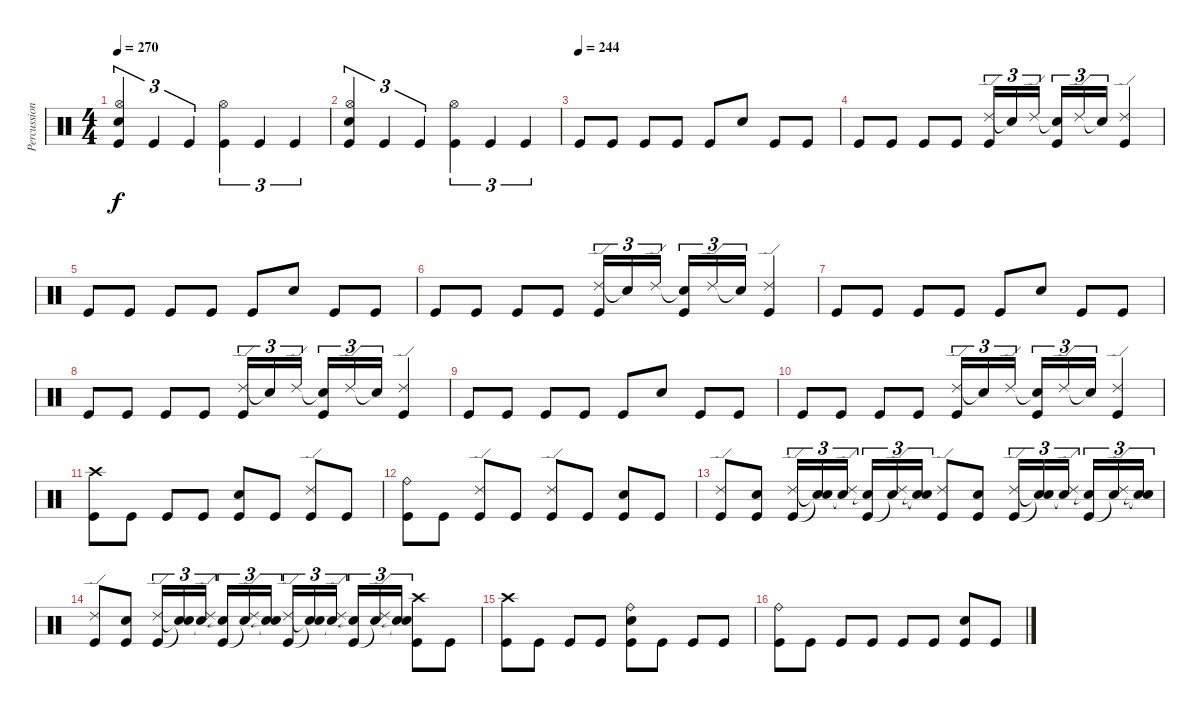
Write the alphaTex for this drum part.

\track ("Percussion" "Percussion") {instrument percussion}
\staff {score}
\articulation defaults
\ts (4 4)
\tempo 270
\clef neutral
\ks c
("Snare (hit) 2" "Hi-Hat (open)" "Kick (hit)").4{tu (3 2) dy f} "Kick (hit)".4{tu (3 2)} "Kick (hit)".4{tu (3 2)} ("Hi-Hat (open)" "Kick (hit)").4{tu (3 2)} "Kick (hit)".4{tu (3 2)} "Kick (hit)".4{tu (3 2)} |
("Snare (hit) 2" "Hi-Hat (open)" "Kick (hit)").4{tu (3 2)} "Kick (hit)".4{tu (3 2)} "Kick (hit)".4{tu (3 2)} ("Hi-Hat (open)" "Kick (hit)").4{tu (3 2)} "Kick (hit)".4{tu (3 2)} "Kick (hit)".4{tu (3 2)} |
\tempo (244)
"Kick (hit)".8 "Kick (hit)".8 "Kick (hit)".8 "Kick (hit)".8 "Kick (hit)".8 "Snare (hit) 2".8 "Kick (hit)".8 "Kick (hit)".8 |
"Kick (hit)".8 "Kick (hit)".8 "Kick (hit)".8 "Kick (hit)".8 ("Ride (edge) 2" "Kick (hit)").16{tu (3 2)} "Snare (hit)"{t}.16{tu (3 2)} "Ride (edge) 2".16{tu (3 2)} ("Snare (hit)"{t} "Kick (hit)").16{tu (3 2)} "Ride (edge) 2".16{tu (3 2)} "Snare (hit)"{t}.16{tu (3 2)} ("Ride (edge) 2" "Kick (hit)").4 |
"Kick (hit)".8 "Kick (hit)".8 "Kick (hit)".8 "Kick (hit)".8 "Kick (hit)".8 "Snare (hit) 2".8 "Kick (hit)".8 "Kick (hit)".8 |
"Kick (hit)".8 "Kick (hit)".8 "Kick (hit)".8 "Kick (hit)".8 ("Ride (edge) 2" "Kick (hit)").16{tu (3 2)} "Snare (hit)"{t}.16{tu (3 2)} "Ride (edge) 2".16{tu (3 2)} ("Snare (hit)"{t} "Kick (hit)").16{tu (3 2)} "Ride (edge) 2".16{tu (3 2)} "Snare (hit)"{t}.16{tu (3 2)} ("Ride (edge) 2" "Kick (hit)").4 |
"Kick (hit)".8 "Kick (hit)".8 "Kick (hit)".8 "Kick (hit)".8 "Kick (hit)".8 "Snare (hit) 2".8 "Kick (hit)".8 "Kick (hit)".8 |
"Kick (hit)".8 "Kick (hit)".8 "Kick (hit)".8 "Kick (hit)".8 ("Ride (edge) 2" "Kick (hit)").16{tu (3 2)} "Snare (hit)"{t}.16{tu (3 2)} "Ride (edge) 2".16{tu (3 2)} ("Snare (hit)"{t} "Kick (hit)").16{tu (3 2)} "Ride (edge) 2".16{tu (3 2)} "Snare (hit)"{t}.16{tu (3 2)} ("Ride (edge) 2" "Kick (hit)").4 |
"Kick (hit)".8 "Kick (hit)".8 "Kick (hit)".8 "Kick (hit)".8 "Kick (hit)".8 "Snare (hit) 2".8 "Kick (hit)".8 "Kick (hit)".8 |
"Kick (hit)".8 "Kick (hit)".8 "Kick (hit)".8 "Kick (hit)".8 ("Ride (edge) 2" "Kick (hit)").16{tu (3 2)} "Snare (hit)"{t}.16{tu (3 2)} "Ride (edge) 2".16{tu (3 2)} ("Snare (hit)"{t} "Kick (hit)").16{tu (3 2)} "Ride (edge) 2".16{tu (3 2)} "Snare (hit)"{t}.16{tu (3 2)} ("Ride (edge) 2" "Kick (hit)").4 |
("Crash high (hit)" "Kick (hit)").8 "Kick (hit)".8 "Kick (hit)".8 "Kick (hit)".8 ("Snare (hit) 2" "Kick (hit)").8 "Kick (hit)".8 ("Ride (edge) 2" "Kick (hit)").8 "Kick (hit)".8 |
("Ride (bell)" "Kick (hit)").8 "Kick (hit)".8 ("Ride (edge) 2" "Kick (hit)").8 "Kick (hit)".8 ("Ride (edge) 2" "Kick (hit)").8 "Kick (hit)".8 ("Snare (hit) 2" "Kick (hit)").8 "Kick (hit)".8 |
("Ride (edge) 2" "Kick (hit)").8 ("Snare (hit) 2" "Kick (hit)").8 ("Ride (edge) 2" "Kick (hit)").16{tu (3 2)} ("Snare (hit)"{t} "Snare (hit)"{t}).16{tu (3 2)} ("Ride (edge) 2" "Snare (hit)"{t}).16{tu (3 2)} ("Snare (hit)"{t} "Kick (hit)").16{tu (3 2)} ("Ride (edge) 2" "Snare (hit)"{t}).16{tu (3 2)} ("Snare (hit)"{t} "Snare (hit)"{t}).16{tu (3 2)} ("Ride (edge) 2" "Kick (hit)").8 ("Snare (hit) 2" "Kick (hit)").8 ("Ride (edge) 2" "Kick (hit)").16{tu (3 2)} ("Snare (hit)"{t} "Snare (hit)"{t}).16{tu (3 2)} ("Ride (edge) 2" "Snare (hit)"{t}).16{tu (3 2)} ("Snare (hit)"{t} "Kick (hit)").16{tu (3 2)} ("Ride (edge) 2" "Snare (hit)"{t}).16{tu (3 2)} ("Snare (hit)"{t} "Snare (hit)"{t}).16{tu (3 2)} |
("Ride (edge) 2" "Kick (hit)").8 ("Snare (hit) 2" "Kick (hit)").8 ("Ride (edge) 2" "Kick (hit)").16{tu (3 2)} ("Snare (hit)"{t} "Snare (hit)"{t}).16{tu (3 2)} ("Ride (edge) 2" "Snare (hit)"{t}).16{tu (3 2)} ("Snare (hit)"{t} "Kick (hit)").16{tu (3 2)} ("Ride (edge) 2" "Snare (hit)"{t}).16{tu (3 2)} ("Snare (hit)"{t} "Snare (hit)"{t}).16{tu (3 2)} ("Ride (edge) 2" "Kick (hit)").16{tu (3 2)} ("Snare (hit)"{t} "Snare (hit)"{t}).16{tu (3 2)} ("Ride (edge) 2" "Snare (hit)"{t}).16{tu (3 2)} ("Snare (hit)"{t} "Kick (hit)").16{tu (3 2)} ("Ride (edge) 2" "Snare (hit)"{t}).16{tu (3 2)} ("Snare (hit)"{t} "Snare (hit)"{t}).16{tu (3 2)} ("Crash high (hit)" "Kick (hit)").8 "Kick (hit)".8 |
("Crash high (hit)" "Kick (hit)").8 "Kick (hit)".8 "Kick (hit)".8 "Kick (hit)".8 ("Ride (bell)" "Snare (hit) 2" "Kick (hit)").8 "Kick (hit)".8 "Kick (hit)".8 "Kick (hit)".8 |
("Ride (bell)" "Kick (hit)").8 "Kick (hit)".8 "Kick (hit)".8 "Kick (hit)".8 "Kick (hit)".8 "Kick (hit)".8 ("Snare (hit) 2" "Kick (hit)").8 "Kick (hit)".8
